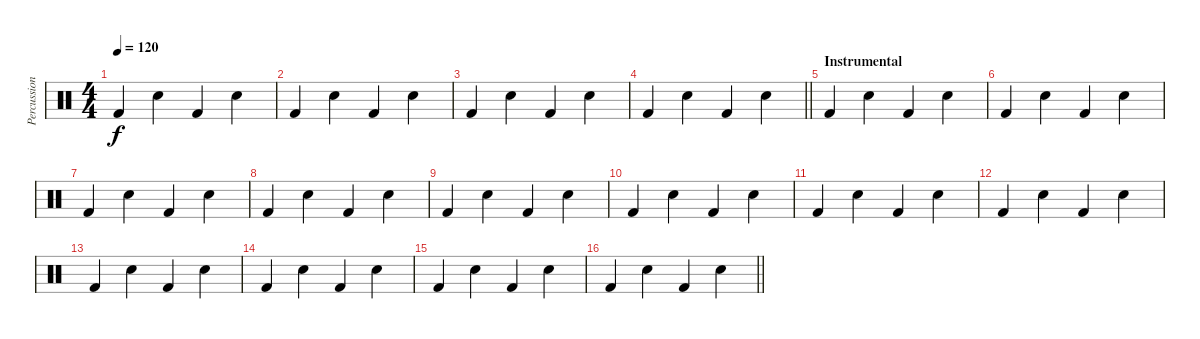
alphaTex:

\track ("Percussion" "Percussion") {instrument percussion}
\staff {score}
\articulation defaults
\ts (4 4)
\tempo 120
\clef neutral
\ks c "Kick (hit) 2".4{dy f} "Snare (hit) 2".4 "Kick (hit) 2".4 "Snare (hit) 2".4
|
"Kick (hit) 2".4 "Snare (hit) 2".4 "Kick (hit) 2".4 "Snare (hit) 2".4 |
"Kick (hit) 2".4 "Snare (hit) 2".4 "Kick (hit) 2".4 "Snare (hit) 2".4 |
\barLineRight lightlight "Kick (hit) 2".4 "Snare (hit) 2".4 "Kick (hit) 2".4 "Snare (hit) 2".4
|
\section ("" "Instrumental")
"Kick (hit) 2".4 "Snare (hit) 2".4 "Kick (hit) 2".4 "Snare (hit) 2".4 |
"Kick (hit) 2".4 "Snare (hit) 2".4 "Kick (hit) 2".4 "Snare (hit) 2".4 |
"Kick (hit) 2".4 "Snare (hit) 2".4 "Kick (hit) 2".4 "Snare (hit) 2".4 |
"Kick (hit) 2".4 "Snare (hit) 2".4 "Kick (hit) 2".4 "Snare (hit) 2".4 |
"Kick (hit) 2".4 "Snare (hit) 2".4 "Kick (hit) 2".4 "Snare (hit) 2".4 |
"Kick (hit) 2".4 "Snare (hit) 2".4 "Kick (hit) 2".4 "Snare (hit) 2".4 |
"Kick (hit) 2".4 "Snare (hit) 2".4 "Kick (hit) 2".4 "Snare (hit) 2".4 |
"Kick (hit) 2".4 "Snare (hit) 2".4 "Kick (hit) 2".4 "Snare (hit) 2".4 |
"Kick (hit) 2".4 "Snare (hit) 2".4 "Kick (hit) 2".4 "Snare (hit) 2".4 |
"Kick (hit) 2".4 "Snare (hit) 2".4 "Kick (hit) 2".4 "Snare (hit) 2".4 |
"Kick (hit) 2".4 "Snare (hit) 2".4 "Kick (hit) 2".4 "Snare (hit) 2".4 |
\barLineRight lightlight "Kick (hit) 2".4 "Snare (hit) 2".4 "Kick (hit) 2".4 "Snare (hit) 2".4
